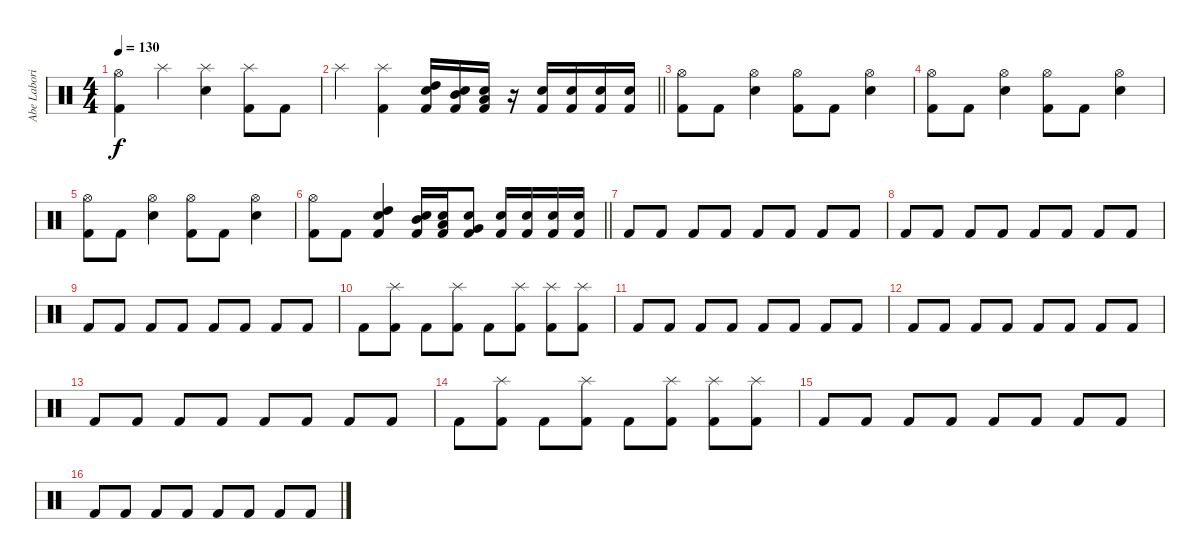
\track ("Abe Laboriel, Jr." "Abe Labori") {instrument percussion}
\staff {score}
\articulation defaults
\ts (4 4)
\tempo 130
\clef neutral
\ks c
("Hi-Hat (open)" "Kick (hit) 2").4{dy f} "Splash (hit)".4 ("Splash (hit)" "Snare (hit) 2").4 ("Splash (hit)" "Kick (hit) 2").8 "Kick (hit) 2".8 |
\barLineRight lightlight "Splash (hit)".4
("Splash (hit)" "Kick (hit) 2").4 ("Kick (hit) 2" "Snare (hit) 2" "High Tom (hit)").16 ("Kick (hit) 2" "Snare (hit) 2" "Mid Tom (hit)").16 ("Kick (hit) 2" "Snare (hit) 2" "Low Tom (hit)").16 r.16 ("Kick (hit) 2" "Snare (hit) 2").16 ("Kick (hit) 2" "Snare (hit) 2").16 ("Kick (hit) 2" "Snare (hit) 2").16 ("Kick (hit) 2" "Snare (hit) 2").16 |
("Hi-Hat (open)" "Kick (hit) 2").8 "Kick (hit) 2".8 ("Hi-Hat (open)" "Snare (hit) 2").4 ("Hi-Hat (open)" "Kick (hit) 2").8 "Kick (hit) 2".8 ("Hi-Hat (open)" "Snare (hit) 2").4 |
("Hi-Hat (open)" "Kick (hit) 2").8 "Kick (hit) 2".8 ("Hi-Hat (open)" "Snare (hit) 2").4 ("Hi-Hat (open)" "Kick (hit) 2").8 "Kick (hit) 2".8 ("Hi-Hat (open)" "Snare (hit) 2").4 |
("Hi-Hat (open)" "Kick (hit) 2").8 "Kick (hit) 2".8 ("Hi-Hat (open)" "Snare (hit) 2").4 ("Hi-Hat (open)" "Kick (hit) 2").8 "Kick (hit) 2".8 ("Hi-Hat (open)" "Snare (hit) 2").4 |
\barLineRight lightlight
("Hi-Hat (open)" "Kick (hit) 2").8 "Kick (hit) 2".8 ("Kick (hit) 2" "Snare (hit) 2" "High Tom (hit)").4 ("Kick (hit) 2" "Snare (hit) 2" "Mid Tom (hit)").16 ("Kick (hit) 2" "Snare (hit) 2" "Low Tom (hit)").16 ("Kick (hit) 2" "Snare (hit) 2" "Very Low Tom (hit)").8 ("Kick (hit) 2" "Snare (hit) 2").16 ("Kick (hit) 2" "Snare (hit) 2").16 ("Kick (hit) 2" "Snare (hit) 2").16 ("Kick (hit) 2" "Snare (hit) 2").16 |
"Kick (hit) 2".8 "Kick (hit) 2".8 "Kick (hit) 2".8 "Kick (hit) 2".8 "Kick (hit) 2".8 "Kick (hit) 2".8 "Kick (hit) 2".8 "Kick (hit) 2".8 |
"Kick (hit) 2".8 "Kick (hit) 2".8 "Kick (hit) 2".8 "Kick (hit) 2".8 "Kick (hit) 2".8 "Kick (hit) 2".8 "Kick (hit) 2".8 "Kick (hit) 2".8 |
"Kick (hit) 2".8 "Kick (hit) 2".8 "Kick (hit) 2".8 "Kick (hit) 2".8 "Kick (hit) 2".8 "Kick (hit) 2".8 "Kick (hit) 2".8 "Kick (hit) 2".8 |
"Kick (hit) 2".8 ("Splash (hit)" "Kick (hit) 2").8 "Kick (hit) 2".8 ("Splash (hit)" "Kick (hit) 2").8 "Kick (hit) 2".8 ("Splash (hit)" "Kick (hit) 2").8 ("Splash (hit)" "Kick (hit) 2").8 ("Splash (hit)" "Kick (hit) 2").8 |
"Kick (hit) 2".8 "Kick (hit) 2".8 "Kick (hit) 2".8 "Kick (hit) 2".8 "Kick (hit) 2".8 "Kick (hit) 2".8 "Kick (hit) 2".8 "Kick (hit) 2".8 |
"Kick (hit) 2".8 "Kick (hit) 2".8 "Kick (hit) 2".8 "Kick (hit) 2".8 "Kick (hit) 2".8 "Kick (hit) 2".8 "Kick (hit) 2".8 "Kick (hit) 2".8 |
"Kick (hit) 2".8 "Kick (hit) 2".8 "Kick (hit) 2".8 "Kick (hit) 2".8 "Kick (hit) 2".8 "Kick (hit) 2".8 "Kick (hit) 2".8 "Kick (hit) 2".8 |
"Kick (hit) 2".8 ("Splash (hit)" "Kick (hit) 2").8 "Kick (hit) 2".8 ("Splash (hit)" "Kick (hit) 2").8 "Kick (hit) 2".8 ("Splash (hit)" "Kick (hit) 2").8 ("Splash (hit)" "Kick (hit) 2").8 ("Splash (hit)" "Kick (hit) 2").8 |
"Kick (hit) 2".8 "Kick (hit) 2".8 "Kick (hit) 2".8 "Kick (hit) 2".8 "Kick (hit) 2".8 "Kick (hit) 2".8 "Kick (hit) 2".8 "Kick (hit) 2".8 |
"Kick (hit) 2".8 "Kick (hit) 2".8 "Kick (hit) 2".8 "Kick (hit) 2".8 "Kick (hit) 2".8 "Kick (hit) 2".8 "Kick (hit) 2".8 "Kick (hit) 2".8
